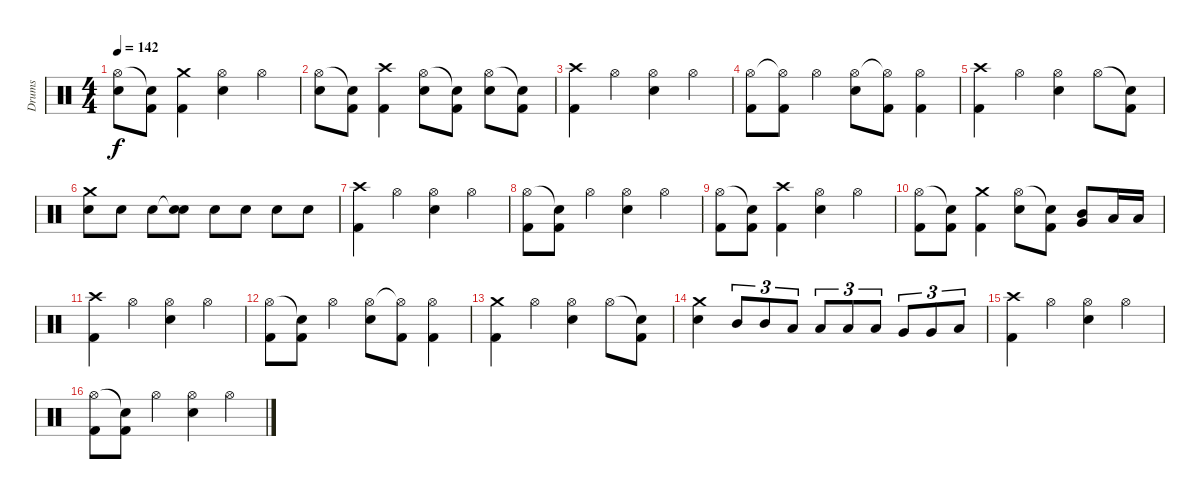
\track ("Drums" "Drums") {instrument percussion}
\staff {score}
\articulation defaults
\ts (4 4)
\tempo 142
\clef neutral
\ks c
("Hi-Hat (open)" "Snare (hit) 2").8{dy f} ("Snare (hit)"{t} "Kick (hit) 2").8 ("Crash medium (hit)" "Kick (hit) 2").4 ("Hi-Hat (open)" "Snare (hit) 2").4 "Hi-Hat (open)".4 |
("Hi-Hat (open)" "Snare (hit) 2").8 ("Snare (hit)"{t} "Kick (hit) 2").8 ("Crash high (hit)" "Kick (hit) 2").4 ("Hi-Hat (open)" "Snare (hit) 2").8 ("Snare (hit)"{t} "Kick (hit) 2").8 ("Hi-Hat (open)" "Snare (hit) 2").8 ("Snare (hit)"{t} "Kick (hit) 2").8 |
("Crash high (hit)" "Kick (hit) 2").4 "Hi-Hat (open)".4 ("Hi-Hat (open)" "Snare (hit) 2").4 "Hi-Hat (open)".4 |
("Hi-Hat (open)" "Kick (hit) 2").8 ("Hi-Hat (open)"{t} "Kick (hit) 2").8 "Hi-Hat (open)".4 ("Hi-Hat (open)" "Snare (hit) 2").8 ("Hi-Hat (open)"{t} "Kick (hit) 2").8 ("Hi-Hat (open)" "Kick (hit) 2").4 |
("Crash high (hit)" "Kick (hit) 2").4 "Hi-Hat (open)".4 ("Hi-Hat (open)" "Snare (hit) 2").4 "Hi-Hat (open)".8 ("Snare (hit)"{t} "Kick (hit) 2").8 |
("Crash medium (hit)" "Snare (hit) 2").8 "Snare (hit) 2".8{volume 10} "Snare (hit) 2".8 ("Snare (hit)"{t} "Snare (hit) 2").8 "Snare (hit) 2".8 "Snare (hit) 2".8{volume 12} "Snare (hit) 2".8{volume 15} "Snare (hit) 2".8 |
("Crash high (hit)" "Kick (hit) 2").4 "Hi-Hat (open)".4 ("Hi-Hat (open)" "Snare (hit) 2").4 "Hi-Hat (open)".4 |
("Hi-Hat (open)" "Kick (hit) 2").8 ("Snare (hit)"{t} "Kick (hit) 2").8 "Hi-Hat (open)".4 ("Hi-Hat (open)" "Snare (hit) 2").4 "Hi-Hat (open)".4 |
("Hi-Hat (open)" "Kick (hit) 2").8 ("Snare (hit)"{t} "Kick (hit) 2").8 ("Crash high (hit)" "Kick (hit) 2").4 ("Hi-Hat (open)" "Snare (hit) 2").4 "Hi-Hat (open)".4 |
("Hi-Hat (open)" "Kick (hit) 2").8 ("Snare (hit)"{t} "Kick (hit) 2").8 ("Crash medium (hit)" "Kick (hit) 2").4 ("Hi-Hat (open)" "Snare (hit) 2").8 ("Snare (hit)"{t} "Kick (hit) 2").8 ("Mid Tom (hit)" "Very Low Tom (hit)").8 "Low Tom (hit)".16 "Low Tom (hit)".16 |
("Crash high (hit)" "Kick (hit) 2").4 "Hi-Hat (open)".4 ("Hi-Hat (open)" "Snare (hit) 2").4 "Hi-Hat (open)".4 |
("Hi-Hat (open)" "Kick (hit) 2").8 ("Snare (hit)"{t} "Kick (hit) 2").8 "Hi-Hat (open)".4 ("Hi-Hat (open)" "Snare (hit) 2").8 ("Hi-Hat (open)"{t} "Kick (hit) 2").8 ("Hi-Hat (open)" "Kick (hit) 2").4 |
("Crash medium (hit)" "Kick (hit) 2").4 "Hi-Hat (open)".4 ("Hi-Hat (open)" "Snare (hit) 2").4 "Hi-Hat (open)".8 ("Snare (hit)"{t} "Kick (hit) 2").8 |
("Crash medium (hit)" "Snare (hit) 2").4 "Mid Tom (hit)".8{tu (3 2)} "Mid Tom (hit)".8{tu (3 2)} "Low Floor Tom (hit)".8{tu (3 2)} "Low Tom (hit)".8{tu (3 2)} "Low Tom (hit)".8{tu (3 2)} "Low Floor Tom (hit)".8{tu (3 2)} "Very Low Tom (hit)".8{tu (3 2)} "Very Low Tom (hit)".8{tu (3 2)} "Low Floor Tom (hit)".8{tu (3 2)} |
("Crash high (hit)" "Kick (hit) 2").4 "Hi-Hat (open)".4 ("Hi-Hat (open)" "Snare (hit) 2").4 "Hi-Hat (open)".4 |
("Hi-Hat (open)" "Kick (hit) 2").8 ("Snare (hit)"{t} "Kick (hit) 2").8 "Hi-Hat (open)".4 ("Hi-Hat (open)" "Snare (hit) 2").4 "Hi-Hat (open)".4
